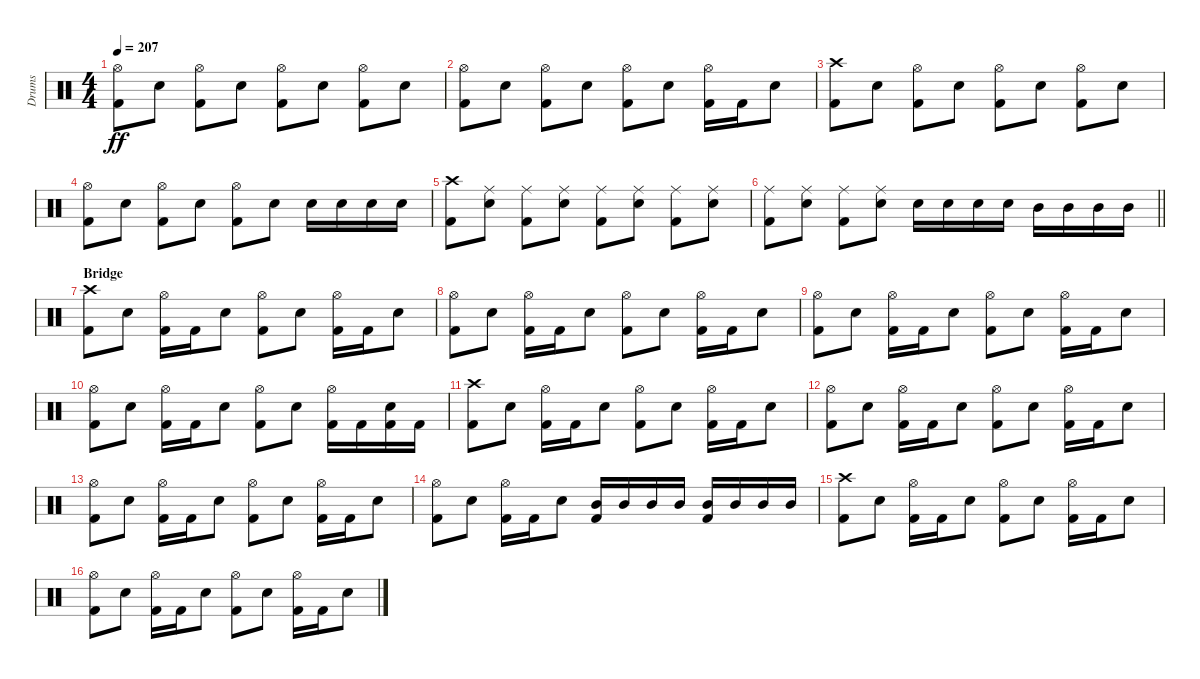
\track ("Drums" "Drums") {instrument percussion}
\staff {score}
\articulation defaults
\ts (4 4)
\tempo 207
\clef neutral
\ks c
("Hi-Hat (open)" "Kick (hit) 2").8{dy ff} "Snare (hit) 2".8 ("Hi-Hat (open)" "Kick (hit) 2").8 "Snare (hit) 2".8 ("Hi-Hat (open)" "Kick (hit) 2").8 "Snare (hit) 2".8 ("Hi-Hat (open)" "Kick (hit) 2").8 "Snare (hit) 2".8 |
("Hi-Hat (open)" "Kick (hit) 2").8 "Snare (hit) 2".8 ("Hi-Hat (open)" "Kick (hit) 2").8 "Snare (hit) 2".8 ("Hi-Hat (open)" "Kick (hit) 2").8 "Snare (hit) 2".8 ("Hi-Hat (open)" "Kick (hit) 2").16 "Kick (hit) 2".16 "Snare (hit) 2".8 |
("Crash high (hit)" "Kick (hit) 2").8 "Snare (hit) 2".8 ("Hi-Hat (open)" "Kick (hit) 2").8 "Snare (hit) 2".8 ("Hi-Hat (open)" "Kick (hit) 2").8 "Snare (hit) 2".8 ("Hi-Hat (open)" "Kick (hit) 2").8 "Snare (hit) 2".8 |
("Hi-Hat (open)" "Kick (hit) 2").8 "Snare (hit) 2".8 ("Hi-Hat (open)" "Kick (hit) 2").8 "Snare (hit) 2".8 ("Hi-Hat (open)" "Kick (hit) 2").8 "Snare (hit) 2".8 "Snare (hit) 2".16 "Snare (hit) 2".16 "Snare (hit) 2".16 "Snare (hit) 2".16 |
("Crash high (hit)" "Kick (hit) 2").8 ("Ride (middle)" "Snare (hit) 2").8 ("Ride (middle)" "Kick (hit) 2").8 ("Ride (middle)" "Snare (hit) 2").8 ("Ride (middle)" "Kick (hit) 2").8 ("Ride (middle)" "Snare (hit) 2").8 ("Ride (middle)" "Kick (hit) 2").8 ("Ride (middle)" "Snare (hit) 2").8 |
\barLineRight lightlight
("Ride (middle)" "Kick (hit) 2").8 ("Ride (middle)" "Snare (hit) 2").8 ("Ride (middle)" "Kick (hit) 2").8 ("Ride (middle)" "Snare (hit) 2").8 "Snare (hit) 2".16 "Snare (hit) 2".16 "Snare (hit) 2".16 "Snare (hit) 2".16 "Mid Tom (hit)".16 "Mid Tom (hit)".16 "Mid Tom (hit)".16 "Mid Tom (hit)".16 |
\section ("" "Bridge")
("Crash high (hit)" "Kick (hit) 2").8 "Snare (hit) 2".8 ("Hi-Hat (open)" "Kick (hit) 2").16 "Kick (hit) 2".16 "Snare (hit) 2".8 ("Hi-Hat (open)" "Kick (hit) 2").8 "Snare (hit) 2".8 ("Hi-Hat (open)" "Kick (hit) 2").16 "Kick (hit) 2".16 "Snare (hit) 2".8 |
("Hi-Hat (open)" "Kick (hit) 2").8 "Snare (hit) 2".8 ("Hi-Hat (open)" "Kick (hit) 2").16 "Kick (hit) 2".16 "Snare (hit) 2".8 ("Hi-Hat (open)" "Kick (hit) 2").8 "Snare (hit) 2".8 ("Hi-Hat (open)" "Kick (hit) 2").16 "Kick (hit) 2".16 "Snare (hit) 2".8 |
("Hi-Hat (open)" "Kick (hit) 2").8 "Snare (hit) 2".8 ("Hi-Hat (open)" "Kick (hit) 2").16 "Kick (hit) 2".16 "Snare (hit) 2".8 ("Hi-Hat (open)" "Kick (hit) 2").8 "Snare (hit) 2".8 ("Hi-Hat (open)" "Kick (hit) 2").16 "Kick (hit) 2".16 "Snare (hit) 2".8 |
("Hi-Hat (open)" "Kick (hit) 2").8 "Snare (hit) 2".8 ("Hi-Hat (open)" "Kick (hit) 2").16 "Kick (hit) 2".16 "Snare (hit) 2".8 ("Hi-Hat (open)" "Kick (hit) 2").8 "Snare (hit) 2".8 ("Hi-Hat (open)" "Kick (hit) 2").16 "Kick (hit) 2".16 ("Snare (hit) 2" "Kick (hit) 2").16 "Kick (hit) 2".16 |
("Crash high (hit)" "Kick (hit) 2").8 "Snare (hit) 2".8 ("Hi-Hat (open)" "Kick (hit) 2").16 "Kick (hit) 2".16 "Snare (hit) 2".8 ("Hi-Hat (open)" "Kick (hit) 2").8 "Snare (hit) 2".8 ("Hi-Hat (open)" "Kick (hit) 2").16 "Kick (hit) 2".16 "Snare (hit) 2".8 |
("Hi-Hat (open)" "Kick (hit) 2").8 "Snare (hit) 2".8 ("Hi-Hat (open)" "Kick (hit) 2").16 "Kick (hit) 2".16 "Snare (hit) 2".8 ("Hi-Hat (open)" "Kick (hit) 2").8 "Snare (hit) 2".8 ("Hi-Hat (open)" "Kick (hit) 2").16 "Kick (hit) 2".16 "Snare (hit) 2".8 |
("Hi-Hat (open)" "Kick (hit) 2").8 "Snare (hit) 2".8 ("Hi-Hat (open)" "Kick (hit) 2").16 "Kick (hit) 2".16 "Snare (hit) 2".8 ("Hi-Hat (open)" "Kick (hit) 2").8 "Snare (hit) 2".8 ("Hi-Hat (open)" "Kick (hit) 2").16 "Kick (hit) 2".16 "Snare (hit) 2".8 |
("Hi-Hat (open)" "Kick (hit) 2").8 "Snare (hit) 2".8 ("Hi-Hat (open)" "Kick (hit) 2").16 "Kick (hit) 2".16 "Snare (hit) 2".8 ("Mid Tom (hit)" "Kick (hit) 2").16 "Mid Tom (hit)".16 "Mid Tom (hit)".16 "Mid Tom (hit)".16 ("Mid Tom (hit)" "Kick (hit) 2").16 "Mid Tom (hit)".16 "Mid Tom (hit)".16 "Mid Tom (hit)".16 |
("Crash high (hit)" "Kick (hit) 2").8 "Snare (hit) 2".8 ("Hi-Hat (open)" "Kick (hit) 2").16 "Kick (hit) 2".16 "Snare (hit) 2".8 ("Hi-Hat (open)" "Kick (hit) 2").8 "Snare (hit) 2".8 ("Hi-Hat (open)" "Kick (hit) 2").16 "Kick (hit) 2".16 "Snare (hit) 2".8 |
("Hi-Hat (open)" "Kick (hit) 2").8 "Snare (hit) 2".8 ("Hi-Hat (open)" "Kick (hit) 2").16 "Kick (hit) 2".16 "Snare (hit) 2".8 ("Hi-Hat (open)" "Kick (hit) 2").8 "Snare (hit) 2".8 ("Hi-Hat (open)" "Kick (hit) 2").16 "Kick (hit) 2".16 "Snare (hit) 2".8
